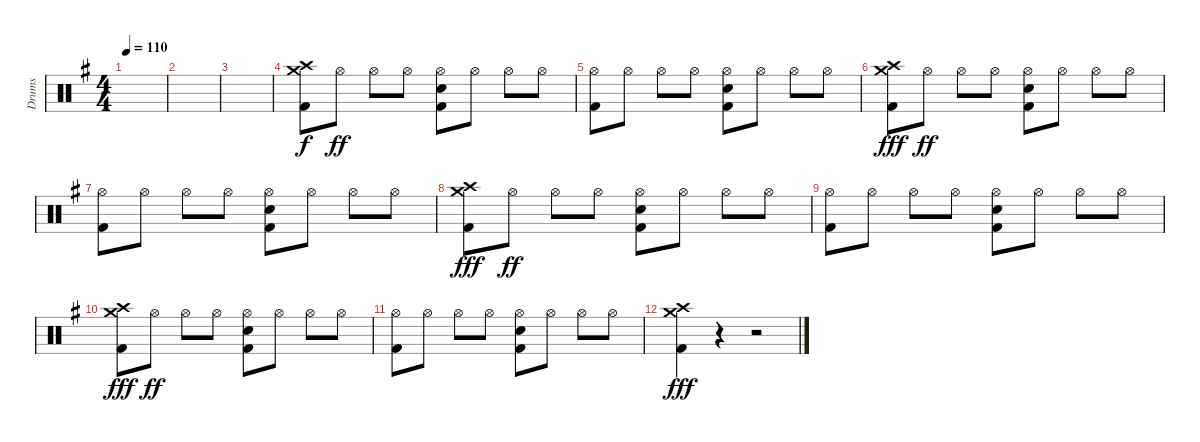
\track ("Drums" "Drums") {instrument percussion}
\staff {score}
\articulation defaults
\ts (4 4)
\tempo 110
\clef neutral
\ks eminor
|
|
|
("Kick (hit) 2" "Crash high (hit)" "Crash medium (hit)").8 "Hi-Hat (open)".8{dy ff} "Hi-Hat (open)".8 "Hi-Hat (open)".8 ("Kick (hit) 2" "Electric Snare (hit)" "Hi-Hat (open)").8 "Hi-Hat (open)".8 "Hi-Hat (open)".8 "Hi-Hat (open)".8 |
("Kick (hit) 2" "Hi-Hat (open)").8 "Hi-Hat (open)".8 "Hi-Hat (open)".8 "Hi-Hat (open)".8 ("Kick (hit) 2" "Electric Snare (hit)" "Hi-Hat (open)").8 "Hi-Hat (open)".8 "Hi-Hat (open)".8 "Hi-Hat (open)".8 |
("Kick (hit) 2" "Crash high (hit)" "Crash medium (hit)").8{dy fff} "Hi-Hat (open)".8{dy ff} "Hi-Hat (open)".8 "Hi-Hat (open)".8 ("Kick (hit) 2" "Electric Snare (hit)" "Hi-Hat (open)").8 "Hi-Hat (open)".8 "Hi-Hat (open)".8 "Hi-Hat (open)".8 |
("Kick (hit) 2" "Hi-Hat (open)").8 "Hi-Hat (open)".8 "Hi-Hat (open)".8 "Hi-Hat (open)".8 ("Kick (hit) 2" "Electric Snare (hit)" "Hi-Hat (open)").8 "Hi-Hat (open)".8 "Hi-Hat (open)".8 "Hi-Hat (open)".8 |
("Kick (hit) 2" "Crash high (hit)" "Crash medium (hit)").8{dy fff} "Hi-Hat (open)".8{dy ff} "Hi-Hat (open)".8 "Hi-Hat (open)".8 ("Kick (hit) 2" "Electric Snare (hit)" "Hi-Hat (open)").8 "Hi-Hat (open)".8 "Hi-Hat (open)".8 "Hi-Hat (open)".8 |
("Kick (hit) 2" "Hi-Hat (open)").8 "Hi-Hat (open)".8 "Hi-Hat (open)".8 "Hi-Hat (open)".8 ("Kick (hit) 2" "Electric Snare (hit)" "Hi-Hat (open)").8 "Hi-Hat (open)".8 "Hi-Hat (open)".8 "Hi-Hat (open)".8 |
("Kick (hit) 2" "Crash high (hit)" "Crash medium (hit)").8{dy fff} "Hi-Hat (open)".8{dy ff} "Hi-Hat (open)".8 "Hi-Hat (open)".8 ("Kick (hit) 2" "Electric Snare (hit)" "Hi-Hat (open)").8 "Hi-Hat (open)".8 "Hi-Hat (open)".8 "Hi-Hat (open)".8 |
("Kick (hit) 2" "Hi-Hat (open)").8 "Hi-Hat (open)".8 "Hi-Hat (open)".8 "Hi-Hat (open)".8 ("Kick (hit) 2" "Electric Snare (hit)" "Hi-Hat (open)").8 "Hi-Hat (open)".8 "Hi-Hat (open)".8 "Hi-Hat (open)".8 |
("Crash high (hit)" "Kick (hit) 2" "Crash medium (hit)").4{dy fff} r.4 r.2
